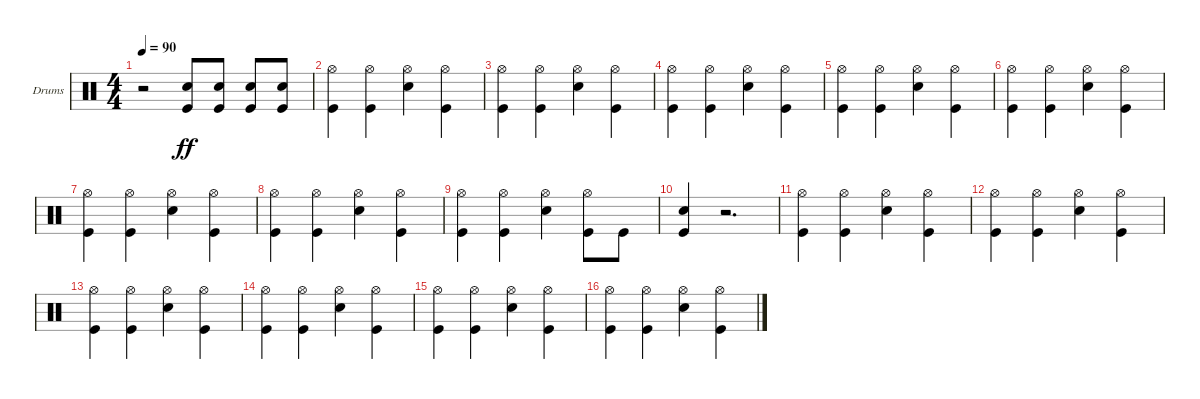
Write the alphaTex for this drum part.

\bracketExtendMode groupsimilarinstruments
\firstSystemTrackNameOrientation horizontal
\otherSystemsTrackNameOrientation horizontal
\track ("Барабаны" "Drums") {instrument percussion}
\staff {score}
\articulation defaults
\ts (4 4)
\tempo 90
\clef neutral
\ks c
r.2{dy ff} ("Snare (hit) 2" "Kick (hit)").8 ("Snare (hit) 2" "Kick (hit)").8 ("Snare (hit) 2" "Kick (hit)").8 ("Snare (hit) 2" "Kick (hit)").8 |
("Hi-Hat (open)" "Kick (hit)").4 ("Hi-Hat (open)" "Kick (hit)").4 ("Hi-Hat (open)" "Snare (hit) 2").4 ("Hi-Hat (open)" "Kick (hit)").4 |
("Hi-Hat (open)" "Kick (hit)").4 ("Hi-Hat (open)" "Kick (hit)").4 ("Hi-Hat (open)" "Snare (hit) 2").4 ("Hi-Hat (open)" "Kick (hit)").4 |
("Hi-Hat (open)" "Kick (hit)").4 ("Hi-Hat (open)" "Kick (hit)").4 ("Hi-Hat (open)" "Snare (hit) 2").4 ("Hi-Hat (open)" "Kick (hit)").4 |
("Hi-Hat (open)" "Kick (hit)").4 ("Hi-Hat (open)" "Kick (hit)").4 ("Hi-Hat (open)" "Snare (hit) 2").4 ("Hi-Hat (open)" "Kick (hit)").4 |
("Hi-Hat (open)" "Kick (hit)").4 ("Hi-Hat (open)" "Kick (hit)").4 ("Hi-Hat (open)" "Snare (hit) 2").4 ("Hi-Hat (open)" "Kick (hit)").4 |
("Hi-Hat (open)" "Kick (hit)").4 ("Hi-Hat (open)" "Kick (hit)").4 ("Hi-Hat (open)" "Snare (hit) 2").4 ("Hi-Hat (open)" "Kick (hit)").4 |
("Hi-Hat (open)" "Kick (hit)").4 ("Hi-Hat (open)" "Kick (hit)").4 ("Hi-Hat (open)" "Snare (hit) 2").4 ("Hi-Hat (open)" "Kick (hit)").4 |
("Hi-Hat (open)" "Kick (hit)").4 ("Hi-Hat (open)" "Kick (hit)").4 ("Hi-Hat (open)" "Snare (hit) 2").4 ("Hi-Hat (open)" "Kick (hit)").8 "Kick (hit)".8 |
("Snare (hit) 2" "Kick (hit)").4 r.2{d} |
("Hi-Hat (open)" "Kick (hit)").4 ("Hi-Hat (open)" "Kick (hit)").4 ("Hi-Hat (open)" "Snare (hit) 2").4 ("Hi-Hat (open)" "Kick (hit)").4 |
("Hi-Hat (open)" "Kick (hit)").4 ("Hi-Hat (open)" "Kick (hit)").4 ("Hi-Hat (open)" "Snare (hit) 2").4 ("Hi-Hat (open)" "Kick (hit)").4 |
("Hi-Hat (open)" "Kick (hit)").4 ("Hi-Hat (open)" "Kick (hit)").4 ("Hi-Hat (open)" "Snare (hit) 2").4 ("Hi-Hat (open)" "Kick (hit)").4 |
("Hi-Hat (open)" "Kick (hit)").4 ("Hi-Hat (open)" "Kick (hit)").4 ("Hi-Hat (open)" "Snare (hit) 2").4 ("Hi-Hat (open)" "Kick (hit)").4 |
("Hi-Hat (open)" "Kick (hit)").4 ("Hi-Hat (open)" "Kick (hit)").4 ("Hi-Hat (open)" "Snare (hit) 2").4 ("Hi-Hat (open)" "Kick (hit)").4 |
("Hi-Hat (open)" "Kick (hit)").4 ("Hi-Hat (open)" "Kick (hit)").4 ("Hi-Hat (open)" "Snare (hit) 2").4 ("Hi-Hat (open)" "Kick (hit)").4
